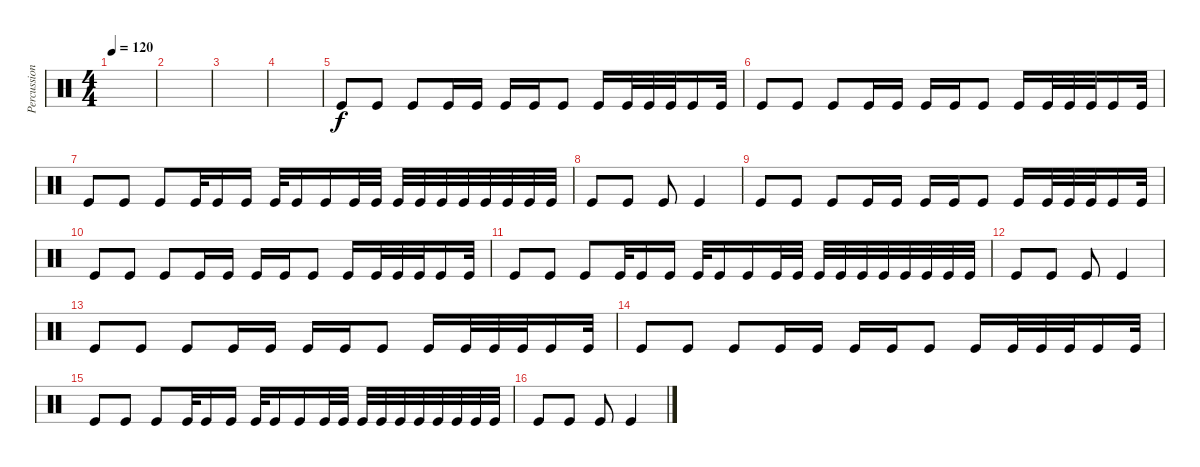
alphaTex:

\track ("Percussion" "Percussion") {instrument percussion}
\staff {score}
\articulation defaults
\ts (4 4)
\tempo 120
\clef neutral
\ks c
|
|
|
|
"Kick (hit)".8 "Kick (hit)".8 "Kick (hit)".8 "Kick (hit)".16 "Kick (hit)".16 "Kick (hit)".16 "Kick (hit)".16 "Kick (hit)".8 "Kick (hit)".16 "Kick (hit)".32 "Kick (hit)".32 "Kick (hit)".32 "Kick (hit)".16 "Kick (hit)".32 |
"Kick (hit)".8 "Kick (hit)".8 "Kick (hit)".8 "Kick (hit)".16 "Kick (hit)".16 "Kick (hit)".16 "Kick (hit)".16 "Kick (hit)".8 "Kick (hit)".16 "Kick (hit)".32 "Kick (hit)".32 "Kick (hit)".32 "Kick (hit)".16 "Kick (hit)".32 |
"Kick (hit)".8 "Kick (hit)".8 "Kick (hit)".8 "Kick (hit)".32 "Kick (hit)".16 "Kick (hit)".16 "Kick (hit)".32 "Kick (hit)".16 "Kick (hit)".16 "Kick (hit)".32 "Kick (hit)".32 "Kick (hit)".32 "Kick (hit)".32 "Kick (hit)".32 "Kick (hit)".32 "Kick (hit)".32 "Kick (hit)".32 "Kick (hit)".32 "Kick (hit)".32 |
"Kick (hit)".8 "Kick (hit)".8 "Kick (hit)".8 "Kick (hit)".4 |
"Kick (hit)".8 "Kick (hit)".8 "Kick (hit)".8 "Kick (hit)".16 "Kick (hit)".16 "Kick (hit)".16 "Kick (hit)".16 "Kick (hit)".8 "Kick (hit)".16 "Kick (hit)".32 "Kick (hit)".32 "Kick (hit)".32 "Kick (hit)".16 "Kick (hit)".32 |
"Kick (hit)".8 "Kick (hit)".8 "Kick (hit)".8 "Kick (hit)".16 "Kick (hit)".16 "Kick (hit)".16 "Kick (hit)".16 "Kick (hit)".8 "Kick (hit)".16 "Kick (hit)".32 "Kick (hit)".32 "Kick (hit)".32 "Kick (hit)".16 "Kick (hit)".32 |
"Kick (hit)".8 "Kick (hit)".8 "Kick (hit)".8 "Kick (hit)".32 "Kick (hit)".16 "Kick (hit)".16 "Kick (hit)".32 "Kick (hit)".16 "Kick (hit)".16 "Kick (hit)".32 "Kick (hit)".32 "Kick (hit)".32 "Kick (hit)".32 "Kick (hit)".32 "Kick (hit)".32 "Kick (hit)".32 "Kick (hit)".32 "Kick (hit)".32 "Kick (hit)".32 |
"Kick (hit)".8 "Kick (hit)".8 "Kick (hit)".8 "Kick (hit)".4 |
"Kick (hit)".8 "Kick (hit)".8 "Kick (hit)".8 "Kick (hit)".16 "Kick (hit)".16 "Kick (hit)".16 "Kick (hit)".16 "Kick (hit)".8 "Kick (hit)".16 "Kick (hit)".32 "Kick (hit)".32 "Kick (hit)".32 "Kick (hit)".16 "Kick (hit)".32 |
"Kick (hit)".8 "Kick (hit)".8 "Kick (hit)".8 "Kick (hit)".16 "Kick (hit)".16 "Kick (hit)".16 "Kick (hit)".16 "Kick (hit)".8 "Kick (hit)".16 "Kick (hit)".32 "Kick (hit)".32 "Kick (hit)".32 "Kick (hit)".16 "Kick (hit)".32 |
"Kick (hit)".8 "Kick (hit)".8 "Kick (hit)".8 "Kick (hit)".32 "Kick (hit)".16 "Kick (hit)".16 "Kick (hit)".32 "Kick (hit)".16 "Kick (hit)".16 "Kick (hit)".32 "Kick (hit)".32 "Kick (hit)".32 "Kick (hit)".32 "Kick (hit)".32 "Kick (hit)".32 "Kick (hit)".32 "Kick (hit)".32 "Kick (hit)".32 "Kick (hit)".32 |
"Kick (hit)".8 "Kick (hit)".8 "Kick (hit)".8 "Kick (hit)".4
